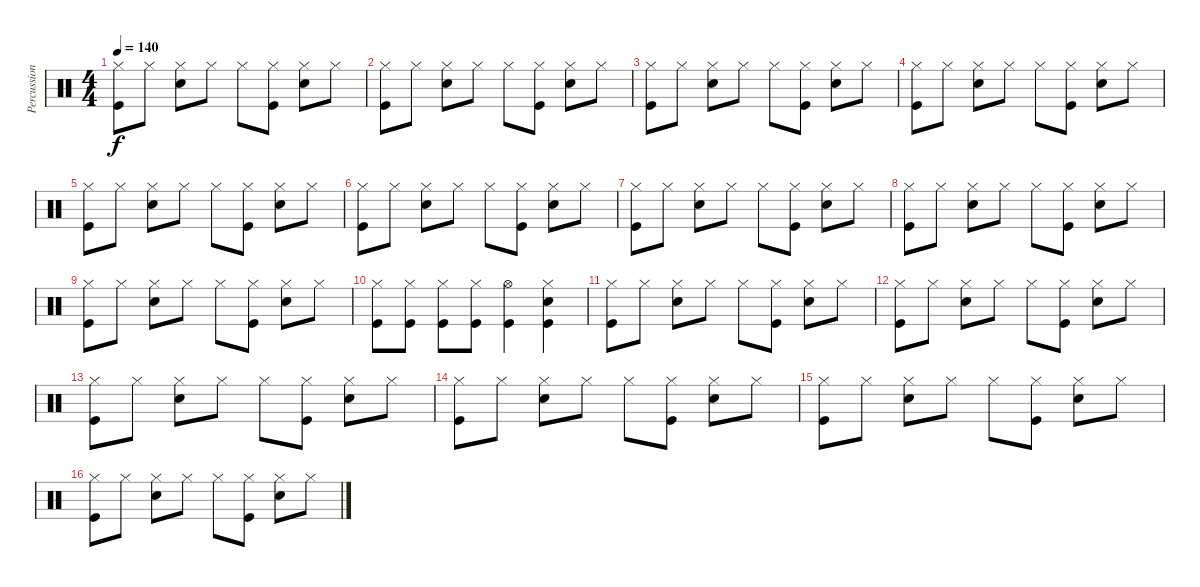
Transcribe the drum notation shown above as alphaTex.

\track ("Percussion" "Percussion") {instrument percussion}
\staff {score}
\articulation defaults
\ts (4 4)
\tempo 140
\clef neutral
\ks c
("Hi-Hat (closed)" "Kick (hit)").8{dy f} "Hi-Hat (closed)".8 ("Hi-Hat (closed)" "Snare (hit) 2").8 "Hi-Hat (closed)".8 "Hi-Hat (closed)".8 ("Hi-Hat (closed)" "Kick (hit)").8 ("Hi-Hat (closed)" "Snare (hit) 2").8 "Hi-Hat (closed)".8 |
("Hi-Hat (closed)" "Kick (hit)").8 "Hi-Hat (closed)".8 ("Hi-Hat (closed)" "Snare (hit) 2").8 "Hi-Hat (closed)".8 "Hi-Hat (closed)".8 ("Hi-Hat (closed)" "Kick (hit)").8 ("Hi-Hat (closed)" "Snare (hit) 2").8 "Hi-Hat (closed)".8 |
("Hi-Hat (closed)" "Kick (hit)").8 "Hi-Hat (closed)".8 ("Hi-Hat (closed)" "Snare (hit) 2").8 "Hi-Hat (closed)".8 "Hi-Hat (closed)".8 ("Hi-Hat (closed)" "Kick (hit)").8 ("Hi-Hat (closed)" "Snare (hit) 2").8 "Hi-Hat (closed)".8 |
("Hi-Hat (closed)" "Kick (hit)").8 "Hi-Hat (closed)".8 ("Hi-Hat (closed)" "Snare (hit) 2").8 "Hi-Hat (closed)".8 "Hi-Hat (closed)".8 ("Hi-Hat (closed)" "Kick (hit)").8 ("Hi-Hat (closed)" "Snare (hit) 2").8 "Hi-Hat (closed)".8 |
("Hi-Hat (closed)" "Kick (hit)").8 "Hi-Hat (closed)".8 ("Hi-Hat (closed)" "Snare (hit) 2").8 "Hi-Hat (closed)".8 "Hi-Hat (closed)".8 ("Hi-Hat (closed)" "Kick (hit)").8 ("Hi-Hat (closed)" "Snare (hit) 2").8 "Hi-Hat (closed)".8 |
("Hi-Hat (closed)" "Kick (hit)").8 "Hi-Hat (closed)".8 ("Hi-Hat (closed)" "Snare (hit) 2").8 "Hi-Hat (closed)".8 "Hi-Hat (closed)".8 ("Hi-Hat (closed)" "Kick (hit)").8 ("Hi-Hat (closed)" "Snare (hit) 2").8 "Hi-Hat (closed)".8 |
("Hi-Hat (closed)" "Kick (hit)").8 "Hi-Hat (closed)".8 ("Hi-Hat (closed)" "Snare (hit) 2").8 "Hi-Hat (closed)".8 "Hi-Hat (closed)".8 ("Hi-Hat (closed)" "Kick (hit)").8 ("Hi-Hat (closed)" "Snare (hit) 2").8 "Hi-Hat (closed)".8 |
("Hi-Hat (closed)" "Kick (hit)").8 "Hi-Hat (closed)".8 ("Hi-Hat (closed)" "Snare (hit) 2").8 "Hi-Hat (closed)".8 "Hi-Hat (closed)".8 ("Hi-Hat (closed)" "Kick (hit)").8 ("Hi-Hat (closed)" "Snare (hit) 2").8 "Hi-Hat (closed)".8 |
("Hi-Hat (closed)" "Kick (hit)").8 "Hi-Hat (closed)".8 ("Hi-Hat (closed)" "Snare (hit) 2").8 "Hi-Hat (closed)".8 "Hi-Hat (closed)".8 ("Hi-Hat (closed)" "Kick (hit)").8 ("Hi-Hat (closed)" "Snare (hit) 2").8 "Hi-Hat (closed)".8 |
("Hi-Hat (closed)" "Kick (hit)").8 ("Hi-Hat (closed)" "Kick (hit)").8 ("Hi-Hat (closed)" "Kick (hit)").8 ("Hi-Hat (closed)" "Kick (hit)").8 ("Hi-Hat (open)" "Kick (hit)").4 ("Hi-Hat (closed)" "Snare (hit) 2" "Kick (hit)").4 |
("Hi-Hat (closed)" "Kick (hit)").8 "Hi-Hat (closed)".8 ("Hi-Hat (closed)" "Snare (hit) 2").8 "Hi-Hat (closed)".8 "Hi-Hat (closed)".8 ("Hi-Hat (closed)" "Kick (hit)").8 ("Hi-Hat (closed)" "Snare (hit) 2").8 "Hi-Hat (closed)".8 |
("Hi-Hat (closed)" "Kick (hit)").8 "Hi-Hat (closed)".8 ("Hi-Hat (closed)" "Snare (hit) 2").8 "Hi-Hat (closed)".8 "Hi-Hat (closed)".8 ("Hi-Hat (closed)" "Kick (hit)").8 ("Hi-Hat (closed)" "Snare (hit) 2").8 "Hi-Hat (closed)".8 |
("Hi-Hat (closed)" "Kick (hit)").8 "Hi-Hat (closed)".8 ("Hi-Hat (closed)" "Snare (hit) 2").8 "Hi-Hat (closed)".8 "Hi-Hat (closed)".8 ("Hi-Hat (closed)" "Kick (hit)").8 ("Hi-Hat (closed)" "Snare (hit) 2").8 "Hi-Hat (closed)".8 |
("Hi-Hat (closed)" "Kick (hit)").8 "Hi-Hat (closed)".8 ("Hi-Hat (closed)" "Snare (hit) 2").8 "Hi-Hat (closed)".8 "Hi-Hat (closed)".8 ("Hi-Hat (closed)" "Kick (hit)").8 ("Hi-Hat (closed)" "Snare (hit) 2").8 "Hi-Hat (closed)".8 |
("Hi-Hat (closed)" "Kick (hit)").8 "Hi-Hat (closed)".8 ("Hi-Hat (closed)" "Snare (hit) 2").8 "Hi-Hat (closed)".8 "Hi-Hat (closed)".8 ("Hi-Hat (closed)" "Kick (hit)").8 ("Hi-Hat (closed)" "Snare (hit) 2").8 "Hi-Hat (closed)".8 |
("Hi-Hat (closed)" "Kick (hit)").8 "Hi-Hat (closed)".8 ("Hi-Hat (closed)" "Snare (hit) 2").8 "Hi-Hat (closed)".8 "Hi-Hat (closed)".8 ("Hi-Hat (closed)" "Kick (hit)").8 ("Hi-Hat (closed)" "Snare (hit) 2").8 "Hi-Hat (closed)".8
